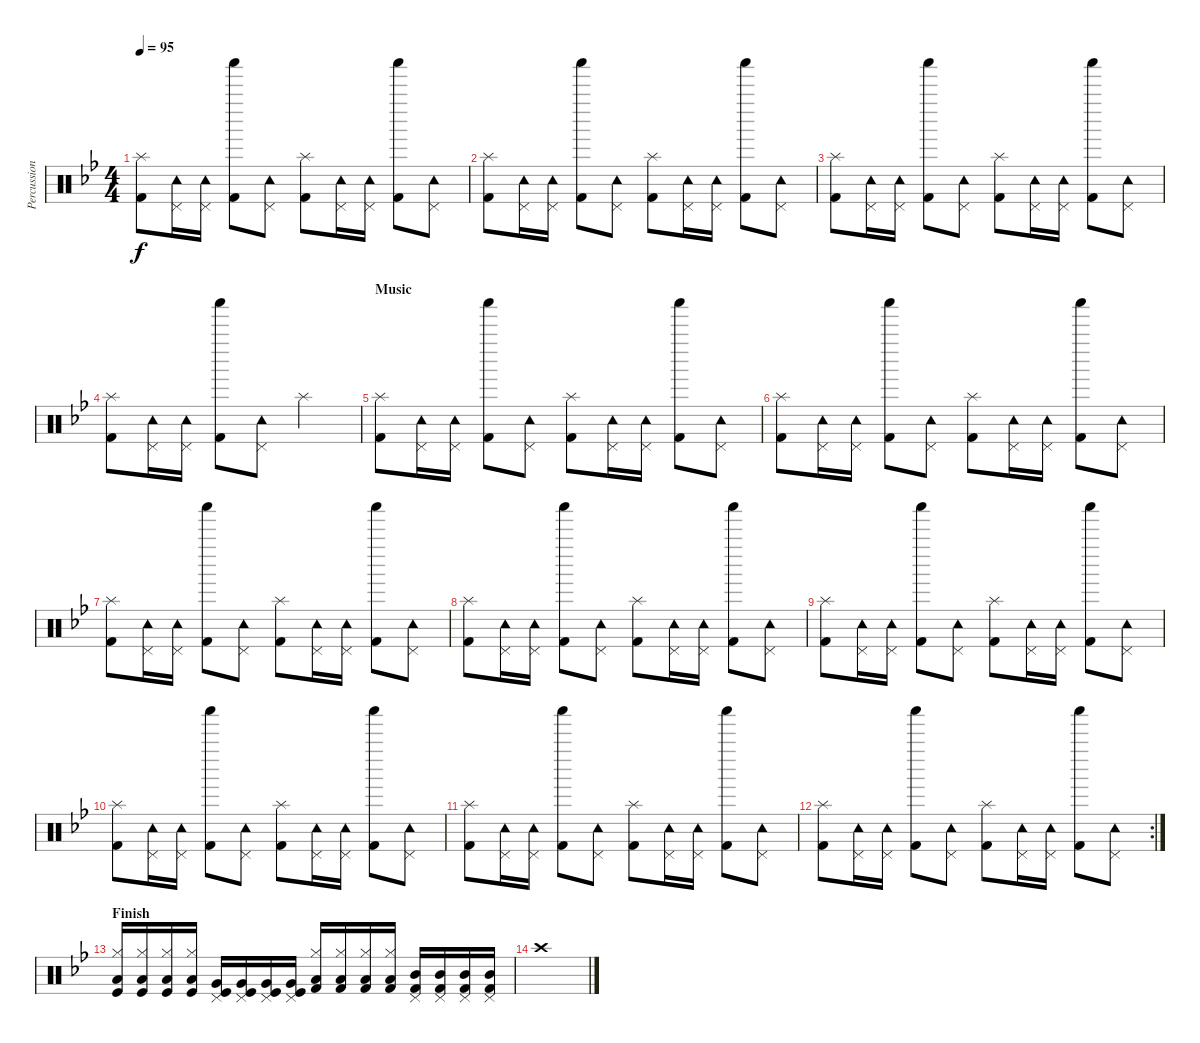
\track ("Percussion" "Percussion") {instrument percussion}
\staff {score}
\articulation defaults
\ts (4 4)
\tempo 95
\clef neutral
\ks bb
("Kick (hit) 2" "Splash (hit)").8{dy f} ("Tambourine (hit)" "Pedal Hi-Hat (hit)").16 ("Tambourine (hit)" "Pedal Hi-Hat (hit)").16 ("Kick (hit) 2" "Shaker (hit)").8 ("Tambourine (hit)" "Pedal Hi-Hat (hit)").8 ("Kick (hit) 2" "Splash (hit)").8 ("Tambourine (hit)" "Pedal Hi-Hat (hit)").16 ("Tambourine (hit)" "Pedal Hi-Hat (hit)").16 ("Kick (hit) 2" "Shaker (hit)").8 ("Tambourine (hit)" "Pedal Hi-Hat (hit)").8 |
("Kick (hit) 2" "Splash (hit)").8 ("Tambourine (hit)" "Pedal Hi-Hat (hit)").16 ("Tambourine (hit)" "Pedal Hi-Hat (hit)").16 ("Kick (hit) 2" "Shaker (hit)").8 ("Tambourine (hit)" "Pedal Hi-Hat (hit)").8 ("Kick (hit) 2" "Splash (hit)").8 ("Tambourine (hit)" "Pedal Hi-Hat (hit)").16 ("Tambourine (hit)" "Pedal Hi-Hat (hit)").16 ("Kick (hit) 2" "Shaker (hit)").8 ("Tambourine (hit)" "Pedal Hi-Hat (hit)").8 |
("Kick (hit) 2" "Splash (hit)").8 ("Tambourine (hit)" "Pedal Hi-Hat (hit)").16 ("Tambourine (hit)" "Pedal Hi-Hat (hit)").16 ("Kick (hit) 2" "Shaker (hit)").8 ("Tambourine (hit)" "Pedal Hi-Hat (hit)").8 ("Kick (hit) 2" "Splash (hit)").8 ("Tambourine (hit)" "Pedal Hi-Hat (hit)").16 ("Tambourine (hit)" "Pedal Hi-Hat (hit)").16 ("Kick (hit) 2" "Shaker (hit)").8 ("Tambourine (hit)" "Pedal Hi-Hat (hit)").8 |
("Kick (hit) 2" "Splash (hit)").8 ("Tambourine (hit)" "Pedal Hi-Hat (hit)").16 ("Tambourine (hit)" "Pedal Hi-Hat (hit)").16 ("Kick (hit) 2" "Shaker (hit)").8 ("Tambourine (hit)" "Pedal Hi-Hat (hit)").8 "Splash (hit)".2 |
\section ("" "Music")
("Kick (hit) 2" "Splash (hit)").8 ("Tambourine (hit)" "Pedal Hi-Hat (hit)").16 ("Tambourine (hit)" "Pedal Hi-Hat (hit)").16 ("Kick (hit) 2" "Shaker (hit)").8 ("Tambourine (hit)" "Pedal Hi-Hat (hit)").8 ("Kick (hit) 2" "Splash (hit)").8 ("Tambourine (hit)" "Pedal Hi-Hat (hit)").16 ("Tambourine (hit)" "Pedal Hi-Hat (hit)").16 ("Kick (hit) 2" "Shaker (hit)").8 ("Tambourine (hit)" "Pedal Hi-Hat (hit)").8 |
("Kick (hit) 2" "Splash (hit)").8 ("Tambourine (hit)" "Pedal Hi-Hat (hit)").16 ("Tambourine (hit)" "Pedal Hi-Hat (hit)").16 ("Kick (hit) 2" "Shaker (hit)").8 ("Tambourine (hit)" "Pedal Hi-Hat (hit)").8 ("Kick (hit) 2" "Splash (hit)").8 ("Tambourine (hit)" "Pedal Hi-Hat (hit)").16 ("Tambourine (hit)" "Pedal Hi-Hat (hit)").16 ("Kick (hit) 2" "Shaker (hit)").8 ("Tambourine (hit)" "Pedal Hi-Hat (hit)").8 |
("Kick (hit) 2" "Splash (hit)").8 ("Tambourine (hit)" "Pedal Hi-Hat (hit)").16 ("Tambourine (hit)" "Pedal Hi-Hat (hit)").16 ("Kick (hit) 2" "Shaker (hit)").8 ("Tambourine (hit)" "Pedal Hi-Hat (hit)").8 ("Kick (hit) 2" "Splash (hit)").8 ("Tambourine (hit)" "Pedal Hi-Hat (hit)").16 ("Tambourine (hit)" "Pedal Hi-Hat (hit)").16 ("Kick (hit) 2" "Shaker (hit)").8 ("Tambourine (hit)" "Pedal Hi-Hat (hit)").8 |
("Kick (hit) 2" "Splash (hit)").8 ("Tambourine (hit)" "Pedal Hi-Hat (hit)").16 ("Tambourine (hit)" "Pedal Hi-Hat (hit)").16 ("Kick (hit) 2" "Shaker (hit)").8 ("Tambourine (hit)" "Pedal Hi-Hat (hit)").8 ("Kick (hit) 2" "Splash (hit)").8 ("Tambourine (hit)" "Pedal Hi-Hat (hit)").16 ("Tambourine (hit)" "Pedal Hi-Hat (hit)").16 ("Kick (hit) 2" "Shaker (hit)").8 ("Tambourine (hit)" "Pedal Hi-Hat (hit)").8 |
("Kick (hit) 2" "Splash (hit)").8 ("Tambourine (hit)" "Pedal Hi-Hat (hit)").16 ("Tambourine (hit)" "Pedal Hi-Hat (hit)").16 ("Kick (hit) 2" "Shaker (hit)").8 ("Tambourine (hit)" "Pedal Hi-Hat (hit)").8 ("Kick (hit) 2" "Splash (hit)").8 ("Tambourine (hit)" "Pedal Hi-Hat (hit)").16 ("Tambourine (hit)" "Pedal Hi-Hat (hit)").16 ("Kick (hit) 2" "Shaker (hit)").8 ("Tambourine (hit)" "Pedal Hi-Hat (hit)").8 |
("Kick (hit) 2" "Splash (hit)").8 ("Tambourine (hit)" "Pedal Hi-Hat (hit)").16 ("Tambourine (hit)" "Pedal Hi-Hat (hit)").16 ("Kick (hit) 2" "Shaker (hit)").8 ("Tambourine (hit)" "Pedal Hi-Hat (hit)").8 ("Kick (hit) 2" "Splash (hit)").8 ("Tambourine (hit)" "Pedal Hi-Hat (hit)").16 ("Tambourine (hit)" "Pedal Hi-Hat (hit)").16 ("Kick (hit) 2" "Shaker (hit)").8 ("Tambourine (hit)" "Pedal Hi-Hat (hit)").8 |
("Kick (hit) 2" "Splash (hit)").8 ("Tambourine (hit)" "Pedal Hi-Hat (hit)").16 ("Tambourine (hit)" "Pedal Hi-Hat (hit)").16 ("Kick (hit) 2" "Shaker (hit)").8 ("Tambourine (hit)" "Pedal Hi-Hat (hit)").8 ("Kick (hit) 2" "Splash (hit)").8 ("Tambourine (hit)" "Pedal Hi-Hat (hit)").16 ("Tambourine (hit)" "Pedal Hi-Hat (hit)").16 ("Kick (hit) 2" "Shaker (hit)").8 ("Tambourine (hit)" "Pedal Hi-Hat (hit)").8 |
\rc 2
("Kick (hit) 2" "Splash (hit)").8 ("Tambourine (hit)" "Pedal Hi-Hat (hit)").16 ("Tambourine (hit)" "Pedal Hi-Hat (hit)").16 ("Kick (hit) 2" "Shaker (hit)").8 ("Tambourine (hit)" "Pedal Hi-Hat (hit)").8 ("Kick (hit) 2" "Splash (hit)").8 ("Tambourine (hit)" "Pedal Hi-Hat (hit)").16 ("Tambourine (hit)" "Pedal Hi-Hat (hit)").16 ("Kick (hit) 2" "Shaker (hit)").8 ("Tambourine (hit)" "Pedal Hi-Hat (hit)").8 |
\section ("" "Finish")
("Low Floor Tom (hit)" "Hi-Hat (closed)" "Kick (hit)").16 ("Low Floor Tom (hit)" "Hi-Hat (closed)" "Kick (hit)").16 ("Low Floor Tom (hit)" "Hi-Hat (closed)" "Kick (hit)").16 ("Low Floor Tom (hit)" "Hi-Hat (closed)" "Kick (hit)").16 ("Very Low Tom (hit)" "Pedal Hi-Hat (hit)" "Kick (hit)").16 ("Very Low Tom (hit)" "Pedal Hi-Hat (hit)" "Kick (hit)").16 ("Very Low Tom (hit)" "Pedal Hi-Hat (hit)" "Kick (hit)").16 ("Very Low Tom (hit)" "Pedal Hi-Hat (hit)" "Kick (hit)").16 ("Low Tom (hit)" "Hi-Hat (closed)" "Kick (hit) 2").16 ("Low Tom (hit)" "Hi-Hat (closed)" "Kick (hit) 2").16 ("Low Tom (hit)" "Hi-Hat (closed)" "Kick (hit) 2").16 ("Low Tom (hit)" "Hi-Hat (closed)" "Kick (hit) 2").16 ("Mid Tom (hit)" "Pedal Hi-Hat (hit)" "Kick (hit) 2").16 ("Mid Tom (hit)" "Pedal Hi-Hat (hit)" "Kick (hit) 2").16 ("Mid Tom (hit)" "Pedal Hi-Hat (hit)" "Kick (hit) 2").16 ("Mid Tom (hit)" "Pedal Hi-Hat (hit)" "Kick (hit) 2").16 |
"Crash high (hit)".1
